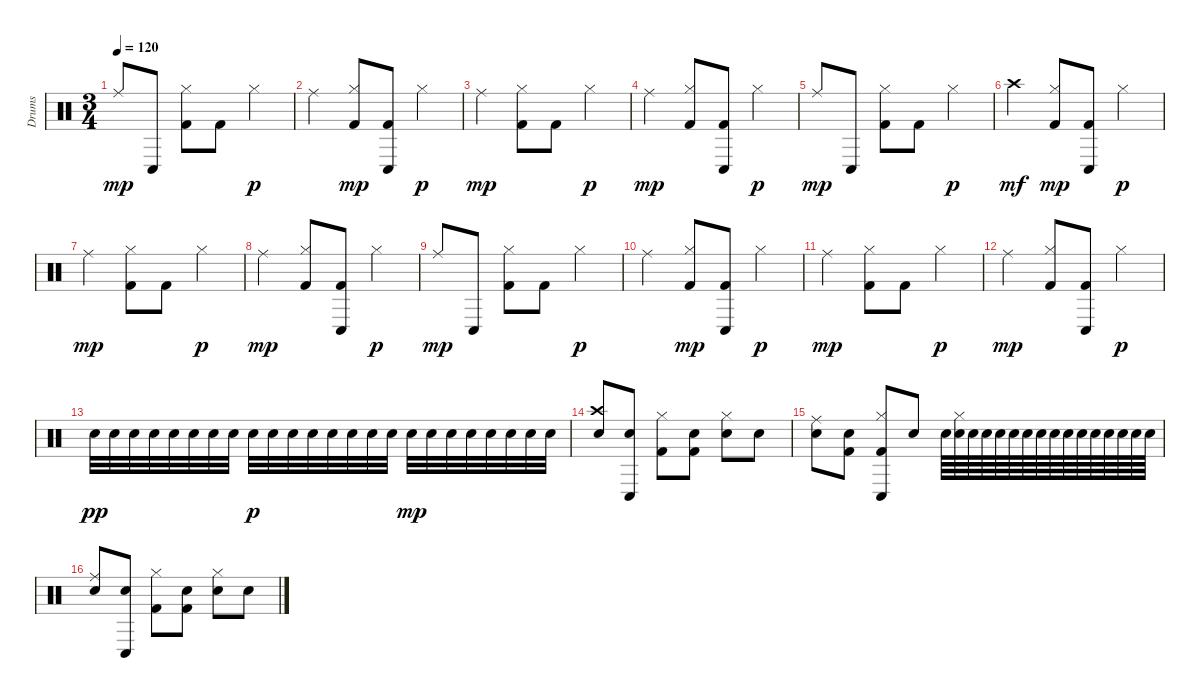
\track ("Drums" "Drums") {instrument percussion}
\staff {score}
\articulation defaults
\ts (3 4)
\tempo 120
\clef neutral
\ks c "Ride (middle)".8{dy mp} "Conga low (hit)".8
("Hi-Hat (closed)" "Kick (hit) 2").8 "Kick (hit) 2".8 "Hi-Hat (closed)".4{dy p} |
"Ride (middle)".4 ("Hi-Hat (closed)" "Kick (hit) 2").8{dy mp} ("Kick (hit) 2" "Conga low (hit)").8 "Hi-Hat (closed)".4{dy p} |
"Ride (middle)".4{dy mp} ("Hi-Hat (closed)" "Kick (hit) 2").8 "Kick (hit) 2".8 "Hi-Hat (closed)".4{dy p} |
"Ride (middle)".4{dy mp} ("Hi-Hat (closed)" "Kick (hit) 2").8 ("Kick (hit) 2" "Conga low (hit)").8 "Hi-Hat (closed)".4{dy p} |
"Ride (middle)".8{dy mp} "Conga low (hit)".8 ("Hi-Hat (closed)" "Kick (hit) 2").8 "Kick (hit) 2".8 "Hi-Hat (closed)".4{dy p} |
"Crash high (hit)".4{dy mf} ("Hi-Hat (closed)" "Kick (hit) 2").8{dy mp} ("Kick (hit) 2" "Conga low (hit)").8 "Hi-Hat (closed)".4{dy p} |
"Ride (middle)".4{dy mp} ("Hi-Hat (closed)" "Kick (hit) 2").8 "Kick (hit) 2".8 "Hi-Hat (closed)".4{dy p} |
"Ride (middle)".4{dy mp} ("Hi-Hat (closed)" "Kick (hit) 2").8 ("Kick (hit) 2" "Conga low (hit)").8 "Hi-Hat (closed)".4{dy p} |
"Ride (middle)".8{dy mp} "Conga low (hit)".8 ("Hi-Hat (closed)" "Kick (hit) 2").8 "Kick (hit) 2".8 "Hi-Hat (closed)".4{dy p} |
"Ride (middle)".4 ("Hi-Hat (closed)" "Kick (hit) 2").8{dy mp} ("Kick (hit) 2" "Conga low (hit)").8 "Hi-Hat (closed)".4{dy p} |
"Ride (middle)".4{dy mp} ("Hi-Hat (closed)" "Kick (hit) 2").8 "Kick (hit) 2".8 "Hi-Hat (closed)".4{dy p} |
"Ride (middle)".4{dy mp} ("Hi-Hat (closed)" "Kick (hit) 2").8 ("Kick (hit) 2" "Conga low (hit)").8 "Hi-Hat (closed)".4{dy p} |
"Snare (hit) 2".32{dy pp} "Snare (hit) 2".32 "Snare (hit) 2".32 "Snare (hit) 2".32 "Snare (hit) 2".32 "Snare (hit) 2".32 "Snare (hit) 2".32 "Snare (hit) 2".32 "Snare (hit) 2".32{dy p} "Snare (hit) 2".32 "Snare (hit) 2".32 "Snare (hit) 2".32 "Snare (hit) 2".32 "Snare (hit) 2".32 "Snare (hit) 2".32 "Snare (hit) 2".32 "Snare (hit) 2".32{dy mp} "Snare (hit) 2".32 "Snare (hit) 2".32 "Snare (hit) 2".32 "Snare (hit) 2".32 "Snare (hit) 2".32 "Snare (hit) 2".32 "Snare (hit) 2".32 |
("Crash high (hit)" "Snare (hit) 2").8 ("Snare (hit) 2" "Conga low (hit)").8 ("Hi-Hat (closed)" "Kick (hit) 2").8 ("Snare (hit) 2" "Kick (hit) 2").8 ("Hi-Hat (closed)" "Snare (hit) 2").8 "Snare (hit) 2".8 |
("Ride (middle)" "Snare (hit) 2").8 ("Snare (hit) 2" "Kick (hit) 2").8 ("Hi-Hat (closed)" "Kick (hit) 2" "Conga low (hit)").8 "Snare (hit) 2".8 "Snare (hit) 2".64 ("Hi-Hat (closed)" "Snare (hit) 2").64 "Snare (hit) 2".64 "Snare (hit) 2".64 "Snare (hit) 2".64 "Snare (hit) 2".64 "Snare (hit) 2".64 "Snare (hit) 2".64 "Snare (hit) 2".64 "Snare (hit) 2".64 "Snare (hit) 2".64 "Snare (hit) 2".64 "Snare (hit) 2".64 "Snare (hit) 2".64 "Snare (hit) 2".64 "Snare (hit) 2".64 |
("Ride (middle)" "Snare (hit) 2").8 ("Snare (hit) 2" "Conga low (hit)").8 ("Hi-Hat (closed)" "Kick (hit) 2").8 ("Snare (hit) 2" "Kick (hit) 2").8 ("Hi-Hat (closed)" "Snare (hit) 2").8 "Snare (hit) 2".8
